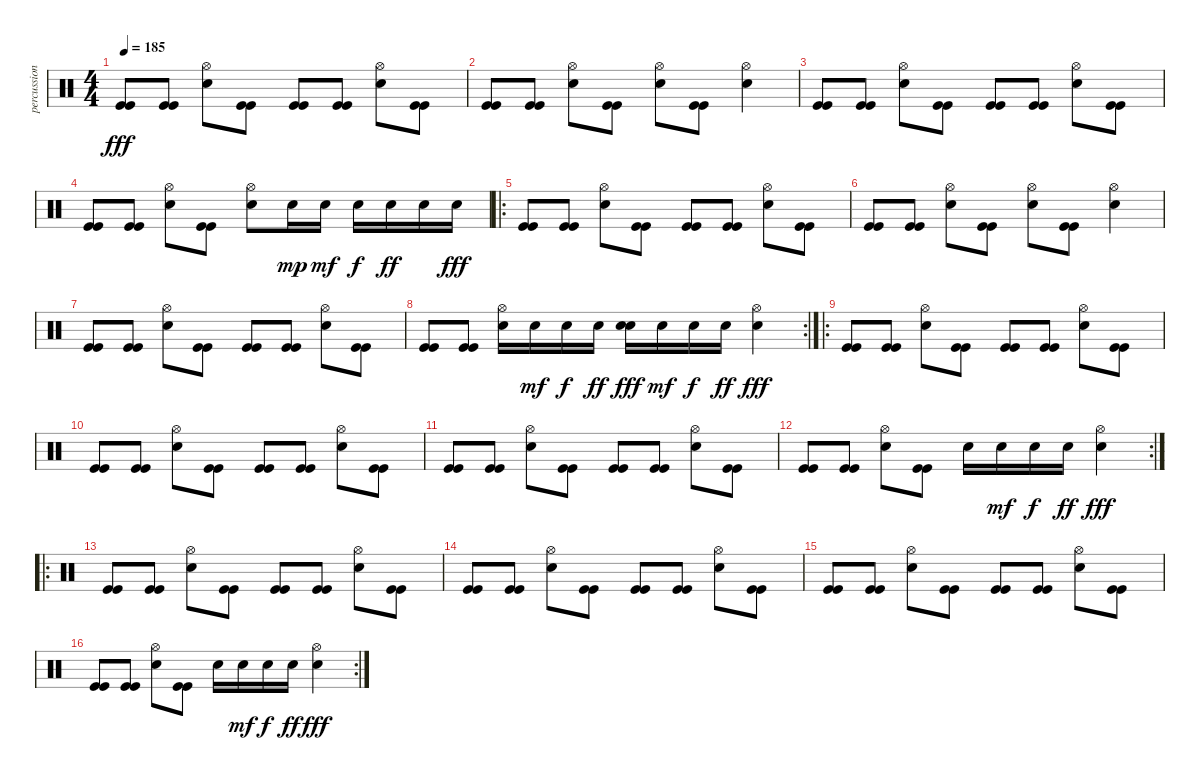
\track ("percussions" "percussion") {instrument percussion}
\staff {score}
\articulation defaults
\ts (4 4)
\tempo 185
\clef neutral
\ks c
("Kick (hit)" "Kick (hit)").8{dy fff} ("Kick (hit)" "Kick (hit)").8 ("Snare (hit) 2" "Hi-Hat (open)").8 ("Kick (hit)" "Kick (hit)").8 ("Kick (hit)" "Kick (hit)").8 ("Kick (hit)" "Kick (hit)").8 ("Snare (hit) 2" "Hi-Hat (open)").8 ("Kick (hit)" "Kick (hit)").8 |
("Kick (hit)" "Kick (hit)").8 ("Kick (hit)" "Kick (hit)").8 ("Snare (hit) 2" "Hi-Hat (open)").8 ("Kick (hit)" "Kick (hit)").8 ("Snare (hit) 2" "Hi-Hat (open)").8 ("Kick (hit)" "Kick (hit)").8 ("Snare (hit) 2" "Hi-Hat (open)").4 |
("Kick (hit)" "Kick (hit)").8 ("Kick (hit)" "Kick (hit)").8 ("Snare (hit) 2" "Hi-Hat (open)").8 ("Kick (hit)" "Kick (hit)").8 ("Kick (hit)" "Kick (hit)").8 ("Kick (hit)" "Kick (hit)").8 ("Snare (hit) 2" "Hi-Hat (open)").8 ("Kick (hit)" "Kick (hit)").8 |
("Kick (hit)" "Kick (hit)").8 ("Kick (hit)" "Kick (hit)").8 ("Snare (hit) 2" "Hi-Hat (open)").8 ("Kick (hit)" "Kick (hit)").8 ("Snare (hit) 2" "Hi-Hat (open)").8 "Snare (hit) 2".16{dy mp} "Snare (hit) 2".16{dy mf} "Snare (hit) 2".16{dy f} "Snare (hit) 2".16{dy ff} "Snare (hit) 2".16 "Snare (hit) 2".16{dy fff} |
\ro
("Kick (hit)" "Kick (hit)").8 ("Kick (hit)" "Kick (hit)").8 ("Snare (hit) 2" "Hi-Hat (open)").8 ("Kick (hit)" "Kick (hit)").8 ("Kick (hit)" "Kick (hit)").8 ("Kick (hit)" "Kick (hit)").8 ("Snare (hit) 2" "Hi-Hat (open)").8 ("Kick (hit)" "Kick (hit)").8 |
("Kick (hit)" "Kick (hit)").8 ("Kick (hit)" "Kick (hit)").8 ("Snare (hit) 2" "Hi-Hat (open)").8 ("Kick (hit)" "Kick (hit)").8 ("Snare (hit) 2" "Hi-Hat (open)").8 ("Kick (hit)" "Kick (hit)").8 ("Snare (hit) 2" "Hi-Hat (open)").4 |
("Kick (hit)" "Kick (hit)").8 ("Kick (hit)" "Kick (hit)").8 ("Snare (hit) 2" "Hi-Hat (open)").8 ("Kick (hit)" "Kick (hit)").8 ("Kick (hit)" "Kick (hit)").8 ("Kick (hit)" "Kick (hit)").8 ("Snare (hit) 2" "Hi-Hat (open)").8 ("Kick (hit)" "Kick (hit)").8 |
\rc 2
("Kick (hit)" "Kick (hit)").8 ("Kick (hit)" "Kick (hit)").8 ("Snare (hit) 2" "Hi-Hat (open)").16 "Snare (hit) 2".16{dy mf} "Snare (hit) 2".16{dy f} "Snare (hit) 2".16{dy ff} ("Snare (hit) 2" "Snare (hit) 2").16{dy fff} "Snare (hit) 2".16{dy mf} "Snare (hit) 2".16{dy f} "Snare (hit) 2".16{dy ff} ("Snare (hit) 2" "Hi-Hat (open)").4{dy fff} |
\ro
("Kick (hit)" "Kick (hit)").8 ("Kick (hit)" "Kick (hit)").8 ("Snare (hit) 2" "Hi-Hat (open)").8 ("Kick (hit)" "Kick (hit)").8 ("Kick (hit)" "Kick (hit)").8 ("Kick (hit)" "Kick (hit)").8 ("Snare (hit) 2" "Hi-Hat (open)").8 ("Kick (hit)" "Kick (hit)").8 |
("Kick (hit)" "Kick (hit)").8 ("Kick (hit)" "Kick (hit)").8 ("Snare (hit) 2" "Hi-Hat (open)").8 ("Kick (hit)" "Kick (hit)").8 ("Kick (hit)" "Kick (hit)").8 ("Kick (hit)" "Kick (hit)").8 ("Snare (hit) 2" "Hi-Hat (open)").8 ("Kick (hit)" "Kick (hit)").8 |
("Kick (hit)" "Kick (hit)").8 ("Kick (hit)" "Kick (hit)").8 ("Snare (hit) 2" "Hi-Hat (open)").8 ("Kick (hit)" "Kick (hit)").8 ("Kick (hit)" "Kick (hit)").8 ("Kick (hit)" "Kick (hit)").8 ("Snare (hit) 2" "Hi-Hat (open)").8 ("Kick (hit)" "Kick (hit)").8 |
\rc 2
("Kick (hit)" "Kick (hit)").8 ("Kick (hit)" "Kick (hit)").8 ("Snare (hit) 2" "Hi-Hat (open)").8 ("Kick (hit)" "Kick (hit)").8 "Snare (hit) 2".16 "Snare (hit) 2".16{dy mf} "Snare (hit) 2".16{dy f} "Snare (hit) 2".16{dy ff} ("Snare (hit) 2" "Hi-Hat (open)").4{dy fff} |
\ro
("Kick (hit)" "Kick (hit)").8 ("Kick (hit)" "Kick (hit)").8 ("Snare (hit) 2" "Hi-Hat (open)").8 ("Kick (hit)" "Kick (hit)").8 ("Kick (hit)" "Kick (hit)").8 ("Kick (hit)" "Kick (hit)").8 ("Snare (hit) 2" "Hi-Hat (open)").8 ("Kick (hit)" "Kick (hit)").8 |
("Kick (hit)" "Kick (hit)").8 ("Kick (hit)" "Kick (hit)").8 ("Snare (hit) 2" "Hi-Hat (open)").8 ("Kick (hit)" "Kick (hit)").8 ("Kick (hit)" "Kick (hit)").8 ("Kick (hit)" "Kick (hit)").8 ("Snare (hit) 2" "Hi-Hat (open)").8 ("Kick (hit)" "Kick (hit)").8 |
("Kick (hit)" "Kick (hit)").8 ("Kick (hit)" "Kick (hit)").8 ("Snare (hit) 2" "Hi-Hat (open)").8 ("Kick (hit)" "Kick (hit)").8 ("Kick (hit)" "Kick (hit)").8 ("Kick (hit)" "Kick (hit)").8 ("Snare (hit) 2" "Hi-Hat (open)").8 ("Kick (hit)" "Kick (hit)").8 |
\rc 2
("Kick (hit)" "Kick (hit)").8 ("Kick (hit)" "Kick (hit)").8 ("Snare (hit) 2" "Hi-Hat (open)").8 ("Kick (hit)" "Kick (hit)").8 "Snare (hit) 2".16 "Snare (hit) 2".16{dy mf} "Snare (hit) 2".16{dy f} "Snare (hit) 2".16{dy ff} ("Snare (hit) 2" "Hi-Hat (open)").4{dy fff}
